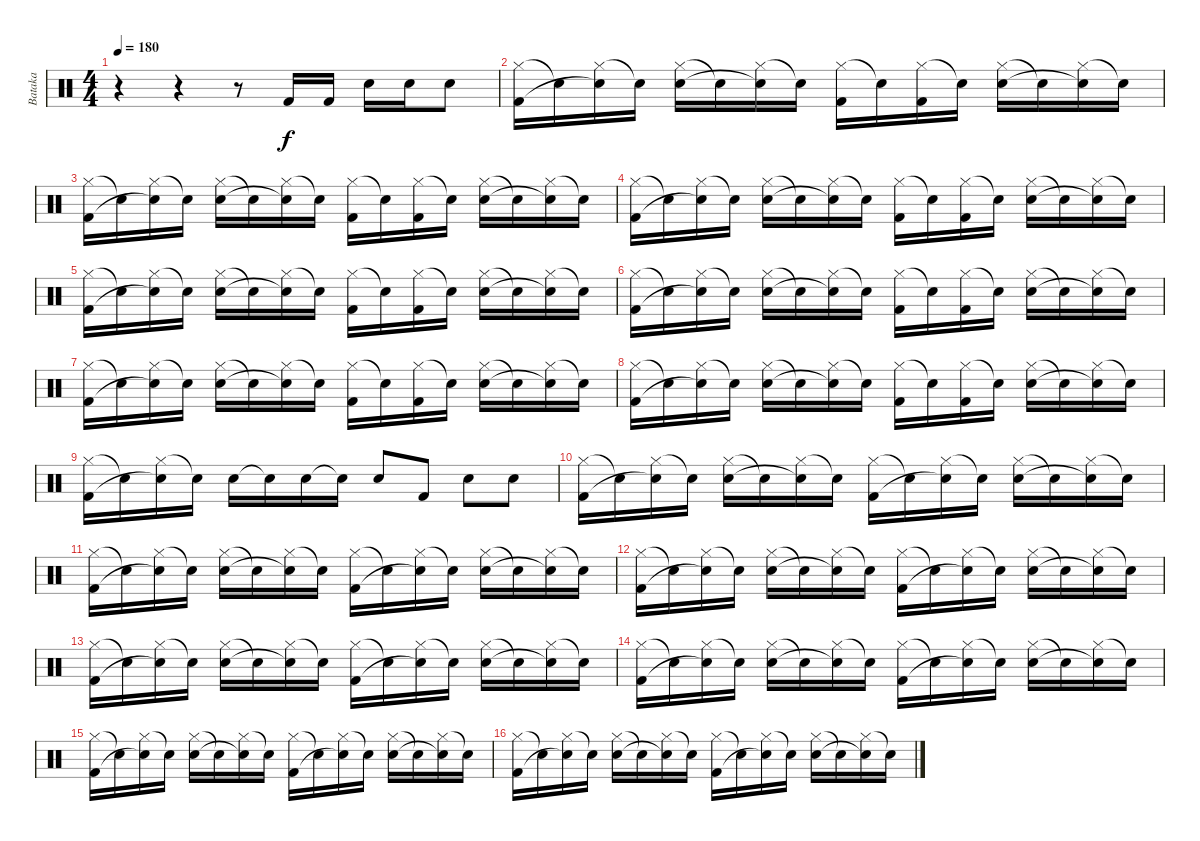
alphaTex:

\track ("Bataka" "Bataka") {instrument percussion}
\staff {score}
\articulation defaults
\ts (4 4)
\tempo 180
\clef neutral
\ks c
r.4{dy f} r.4 r.8 "Kick (hit) 2".16 "Kick (hit) 2".16 "Electric Snare (hit)".16 "Electric Snare (hit)".16 "Electric Snare (hit)".8 |
("Hi-Hat (closed)" "Kick (hit) 2").16 "Snare (hit)"{t}.16 ("Hi-Hat (closed)" "Snare (hit)"{t}).16 "Snare (hit)"{t}.16 ("Hi-Hat (closed)" "Electric Snare (hit)").16 "Snare (hit)"{t}.16 ("Hi-Hat (closed)" "Snare (hit)"{t}).16 "Snare (hit)"{t}.16 ("Hi-Hat (closed)" "Kick (hit) 2").16 "Snare (hit)"{t}.16 ("Hi-Hat (closed)" "Kick (hit) 2").16 "Snare (hit)"{t}.16 ("Hi-Hat (closed)" "Electric Snare (hit)").16 "Snare (hit)"{t}.16 ("Hi-Hat (closed)" "Snare (hit)"{t}).16 "Snare (hit)"{t}.16 |
("Hi-Hat (closed)" "Kick (hit) 2").16 "Snare (hit)"{t}.16 ("Hi-Hat (closed)" "Snare (hit)"{t}).16 "Snare (hit)"{t}.16 ("Hi-Hat (closed)" "Electric Snare (hit)").16 "Snare (hit)"{t}.16 ("Hi-Hat (closed)" "Snare (hit)"{t}).16 "Snare (hit)"{t}.16 ("Hi-Hat (closed)" "Kick (hit) 2").16 "Snare (hit)"{t}.16 ("Hi-Hat (closed)" "Kick (hit) 2").16 "Snare (hit)"{t}.16 ("Hi-Hat (closed)" "Electric Snare (hit)").16 "Snare (hit)"{t}.16 ("Hi-Hat (closed)" "Snare (hit)"{t}).16 "Snare (hit)"{t}.16 |
("Hi-Hat (closed)" "Kick (hit) 2").16 "Snare (hit)"{t}.16 ("Hi-Hat (closed)" "Snare (hit)"{t}).16 "Snare (hit)"{t}.16 ("Hi-Hat (closed)" "Electric Snare (hit)").16 "Snare (hit)"{t}.16 ("Hi-Hat (closed)" "Snare (hit)"{t}).16 "Snare (hit)"{t}.16 ("Hi-Hat (closed)" "Kick (hit) 2").16 "Snare (hit)"{t}.16 ("Hi-Hat (closed)" "Kick (hit) 2").16 "Snare (hit)"{t}.16 ("Hi-Hat (closed)" "Electric Snare (hit)").16 "Snare (hit)"{t}.16 ("Hi-Hat (closed)" "Snare (hit)"{t}).16 "Snare (hit)"{t}.16 |
("Hi-Hat (closed)" "Kick (hit) 2").16 "Snare (hit)"{t}.16 ("Hi-Hat (closed)" "Snare (hit)"{t}).16 "Snare (hit)"{t}.16 ("Hi-Hat (closed)" "Electric Snare (hit)").16 "Snare (hit)"{t}.16 ("Hi-Hat (closed)" "Snare (hit)"{t}).16 "Snare (hit)"{t}.16 ("Hi-Hat (closed)" "Kick (hit) 2").16 "Snare (hit)"{t}.16 ("Hi-Hat (closed)" "Kick (hit) 2").16 "Snare (hit)"{t}.16 ("Hi-Hat (closed)" "Electric Snare (hit)").16 "Snare (hit)"{t}.16 ("Hi-Hat (closed)" "Snare (hit)"{t}).16 "Snare (hit)"{t}.16 |
("Hi-Hat (closed)" "Kick (hit) 2").16 "Snare (hit)"{t}.16 ("Hi-Hat (closed)" "Snare (hit)"{t}).16 "Snare (hit)"{t}.16 ("Hi-Hat (closed)" "Electric Snare (hit)").16 "Snare (hit)"{t}.16 ("Hi-Hat (closed)" "Snare (hit)"{t}).16 "Snare (hit)"{t}.16 ("Hi-Hat (closed)" "Kick (hit) 2").16 "Snare (hit)"{t}.16 ("Hi-Hat (closed)" "Kick (hit) 2").16 "Snare (hit)"{t}.16 ("Hi-Hat (closed)" "Electric Snare (hit)").16 "Snare (hit)"{t}.16 ("Hi-Hat (closed)" "Snare (hit)"{t}).16 "Snare (hit)"{t}.16 |
("Hi-Hat (closed)" "Kick (hit) 2").16 "Snare (hit)"{t}.16 ("Hi-Hat (closed)" "Snare (hit)"{t}).16 "Snare (hit)"{t}.16 ("Hi-Hat (closed)" "Electric Snare (hit)").16 "Snare (hit)"{t}.16 ("Hi-Hat (closed)" "Snare (hit)"{t}).16 "Snare (hit)"{t}.16 ("Hi-Hat (closed)" "Kick (hit) 2").16 "Snare (hit)"{t}.16 ("Hi-Hat (closed)" "Kick (hit) 2").16 "Snare (hit)"{t}.16 ("Hi-Hat (closed)" "Electric Snare (hit)").16 "Snare (hit)"{t}.16 ("Hi-Hat (closed)" "Snare (hit)"{t}).16 "Snare (hit)"{t}.16 |
("Hi-Hat (closed)" "Kick (hit) 2").16 "Snare (hit)"{t}.16 ("Hi-Hat (closed)" "Snare (hit)"{t}).16 "Snare (hit)"{t}.16 ("Hi-Hat (closed)" "Electric Snare (hit)").16 "Snare (hit)"{t}.16 ("Hi-Hat (closed)" "Snare (hit)"{t}).16 "Snare (hit)"{t}.16 ("Hi-Hat (closed)" "Kick (hit) 2").16 "Snare (hit)"{t}.16 ("Hi-Hat (closed)" "Kick (hit) 2").16 "Snare (hit)"{t}.16 ("Hi-Hat (closed)" "Electric Snare (hit)").16 "Snare (hit)"{t}.16 ("Hi-Hat (closed)" "Snare (hit)"{t}).16 "Snare (hit)"{t}.16 |
("Hi-Hat (closed)" "Kick (hit) 2").16 "Snare (hit)"{t}.16 ("Hi-Hat (closed)" "Snare (hit)"{t}).16 "Snare (hit)"{t}.16 "Electric Snare (hit)".16 "Snare (hit)"{t}.16 "Electric Snare (hit)".16 "Snare (hit)"{t}.16 "Electric Snare (hit)".8 "Kick (hit) 2".8 "Electric Snare (hit)".8 "Electric Snare (hit)".8 |
("Hi-Hat (closed)" "Kick (hit) 2").16 "Snare (hit)"{t}.16 ("Hi-Hat (closed)" "Snare (hit)"{t}).16 "Snare (hit)"{t}.16 ("Hi-Hat (closed)" "Electric Snare (hit)").16 "Snare (hit)"{t}.16 ("Hi-Hat (closed)" "Snare (hit)"{t}).16 "Snare (hit)"{t}.16 ("Hi-Hat (closed)" "Kick (hit) 2").16 "Snare (hit)"{t}.16 ("Hi-Hat (closed)" "Snare (hit)"{t}).16 "Snare (hit)"{t}.16 ("Hi-Hat (closed)" "Electric Snare (hit)").16 "Snare (hit)"{t}.16 ("Hi-Hat (closed)" "Snare (hit)"{t}).16 "Snare (hit)"{t}.16 |
("Hi-Hat (closed)" "Kick (hit) 2").16 "Snare (hit)"{t}.16 ("Hi-Hat (closed)" "Snare (hit)"{t}).16 "Snare (hit)"{t}.16 ("Hi-Hat (closed)" "Electric Snare (hit)").16 "Snare (hit)"{t}.16 ("Hi-Hat (closed)" "Snare (hit)"{t}).16 "Snare (hit)"{t}.16 ("Hi-Hat (closed)" "Kick (hit) 2").16 "Snare (hit)"{t}.16 ("Hi-Hat (closed)" "Snare (hit)"{t}).16 "Snare (hit)"{t}.16 ("Hi-Hat (closed)" "Electric Snare (hit)").16 "Snare (hit)"{t}.16 ("Hi-Hat (closed)" "Snare (hit)"{t}).16 "Snare (hit)"{t}.16 |
("Hi-Hat (closed)" "Kick (hit) 2").16 "Snare (hit)"{t}.16 ("Hi-Hat (closed)" "Snare (hit)"{t}).16 "Snare (hit)"{t}.16 ("Hi-Hat (closed)" "Electric Snare (hit)").16 "Snare (hit)"{t}.16 ("Hi-Hat (closed)" "Snare (hit)"{t}).16 "Snare (hit)"{t}.16 ("Hi-Hat (closed)" "Kick (hit) 2").16 "Snare (hit)"{t}.16 ("Hi-Hat (closed)" "Snare (hit)"{t}).16 "Snare (hit)"{t}.16 ("Hi-Hat (closed)" "Electric Snare (hit)").16 "Snare (hit)"{t}.16 ("Hi-Hat (closed)" "Snare (hit)"{t}).16 "Snare (hit)"{t}.16 |
("Hi-Hat (closed)" "Kick (hit) 2").16 "Snare (hit)"{t}.16 ("Hi-Hat (closed)" "Snare (hit)"{t}).16 "Snare (hit)"{t}.16 ("Hi-Hat (closed)" "Electric Snare (hit)").16 "Snare (hit)"{t}.16 ("Hi-Hat (closed)" "Snare (hit)"{t}).16 "Snare (hit)"{t}.16 ("Hi-Hat (closed)" "Kick (hit) 2").16 "Snare (hit)"{t}.16 ("Hi-Hat (closed)" "Snare (hit)"{t}).16 "Snare (hit)"{t}.16 ("Hi-Hat (closed)" "Electric Snare (hit)").16 "Snare (hit)"{t}.16 ("Hi-Hat (closed)" "Snare (hit)"{t}).16 "Snare (hit)"{t}.16 |
("Hi-Hat (closed)" "Kick (hit) 2").16 "Snare (hit)"{t}.16 ("Hi-Hat (closed)" "Snare (hit)"{t}).16 "Snare (hit)"{t}.16 ("Hi-Hat (closed)" "Electric Snare (hit)").16 "Snare (hit)"{t}.16 ("Hi-Hat (closed)" "Snare (hit)"{t}).16 "Snare (hit)"{t}.16 ("Hi-Hat (closed)" "Kick (hit) 2").16 "Snare (hit)"{t}.16 ("Hi-Hat (closed)" "Snare (hit)"{t}).16 "Snare (hit)"{t}.16 ("Hi-Hat (closed)" "Electric Snare (hit)").16 "Snare (hit)"{t}.16 ("Hi-Hat (closed)" "Snare (hit)"{t}).16 "Snare (hit)"{t}.16 |
("Hi-Hat (closed)" "Kick (hit) 2").16 "Snare (hit)"{t}.16 ("Hi-Hat (closed)" "Snare (hit)"{t}).16 "Snare (hit)"{t}.16 ("Hi-Hat (closed)" "Electric Snare (hit)").16 "Snare (hit)"{t}.16 ("Hi-Hat (closed)" "Snare (hit)"{t}).16 "Snare (hit)"{t}.16 ("Hi-Hat (closed)" "Kick (hit) 2").16 "Snare (hit)"{t}.16 ("Hi-Hat (closed)" "Snare (hit)"{t}).16 "Snare (hit)"{t}.16 ("Hi-Hat (closed)" "Electric Snare (hit)").16 "Snare (hit)"{t}.16 ("Hi-Hat (closed)" "Snare (hit)"{t}).16 "Snare (hit)"{t}.16 |
("Hi-Hat (closed)" "Kick (hit) 2").16 "Snare (hit)"{t}.16 ("Hi-Hat (closed)" "Snare (hit)"{t}).16 "Snare (hit)"{t}.16 ("Hi-Hat (closed)" "Electric Snare (hit)").16 "Snare (hit)"{t}.16 ("Hi-Hat (closed)" "Snare (hit)"{t}).16 "Snare (hit)"{t}.16 ("Hi-Hat (closed)" "Kick (hit) 2").16 "Snare (hit)"{t}.16 ("Hi-Hat (closed)" "Snare (hit)"{t}).16 "Snare (hit)"{t}.16 ("Hi-Hat (closed)" "Electric Snare (hit)").16 "Snare (hit)"{t}.16 ("Hi-Hat (closed)" "Snare (hit)"{t}).16 "Snare (hit)"{t}.16
